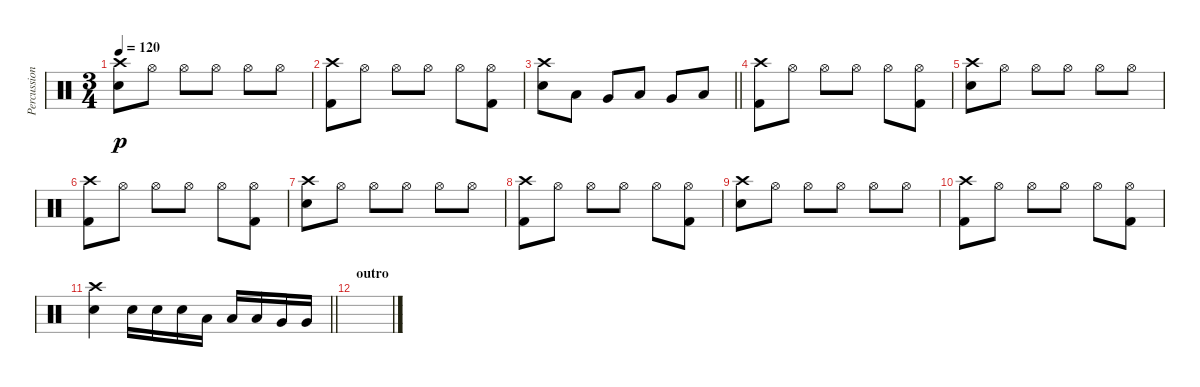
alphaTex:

\track ("Percussion" "Percussion") {instrument percussion}
\staff {score}
\articulation defaults
\ts (3 4)
\tempo 120
\clef neutral
\ks c
("Crash high (hit)" "Snare (hit) 2").8{dy p} "Hi-Hat (open)".8 "Hi-Hat (open)".8 "Hi-Hat (open)".8 "Hi-Hat (open)".8 "Hi-Hat (open)".8 |
("Crash high (hit)" "Kick (hit) 2").8 "Hi-Hat (open)".8 "Hi-Hat (open)".8 "Hi-Hat (open)".8 "Hi-Hat (open)".8 ("Hi-Hat (open)" "Kick (hit) 2").8 |
\barLineRight lightlight
("Crash high (hit)" "Snare (hit) 2").8 "Low Tom (hit)".8 "Very Low Tom (hit)".8 "Low Tom (hit)".8 "Very Low Tom (hit)".8 "Low Floor Tom (hit)".8 |
("Crash high (hit)" "Kick (hit) 2").8 "Hi-Hat (open)".8 "Hi-Hat (open)".8 "Hi-Hat (open)".8 "Hi-Hat (open)".8 ("Hi-Hat (open)" "Kick (hit) 2").8 |
("Crash high (hit)" "Snare (hit) 2").8 "Hi-Hat (open)".8 "Hi-Hat (open)".8 "Hi-Hat (open)".8 "Hi-Hat (open)".8 "Hi-Hat (open)".8 |
("Crash high (hit)" "Kick (hit) 2").8 "Hi-Hat (open)".8 "Hi-Hat (open)".8 "Hi-Hat (open)".8 "Hi-Hat (open)".8 ("Hi-Hat (open)" "Kick (hit) 2").8 |
("Crash high (hit)" "Snare (hit) 2").8 "Hi-Hat (open)".8 "Hi-Hat (open)".8 "Hi-Hat (open)".8 "Hi-Hat (open)".8 "Hi-Hat (open)".8 |
("Crash high (hit)" "Kick (hit) 2").8 "Hi-Hat (open)".8 "Hi-Hat (open)".8 "Hi-Hat (open)".8 "Hi-Hat (open)".8 ("Hi-Hat (open)" "Kick (hit) 2").8 |
("Crash high (hit)" "Snare (hit) 2").8 "Hi-Hat (open)".8 "Hi-Hat (open)".8 "Hi-Hat (open)".8 "Hi-Hat (open)".8 "Hi-Hat (open)".8 |
("Crash high (hit)" "Kick (hit) 2").8 "Hi-Hat (open)".8 "Hi-Hat (open)".8 "Hi-Hat (open)".8 "Hi-Hat (open)".8 ("Hi-Hat (open)" "Kick (hit) 2").8 |
\barLineRight lightlight
("Crash high (hit)" "Snare (hit) 2").4 "Snare (hit) 2".16 "Snare (hit) 2".16 "Snare (hit) 2".16 "Low Tom (hit)".16 "Low Tom (hit)".16 "Low Tom (hit)".16 "Very Low Tom (hit)".16 "Very Low Tom (hit)".16 |
\section ("" "outro")
